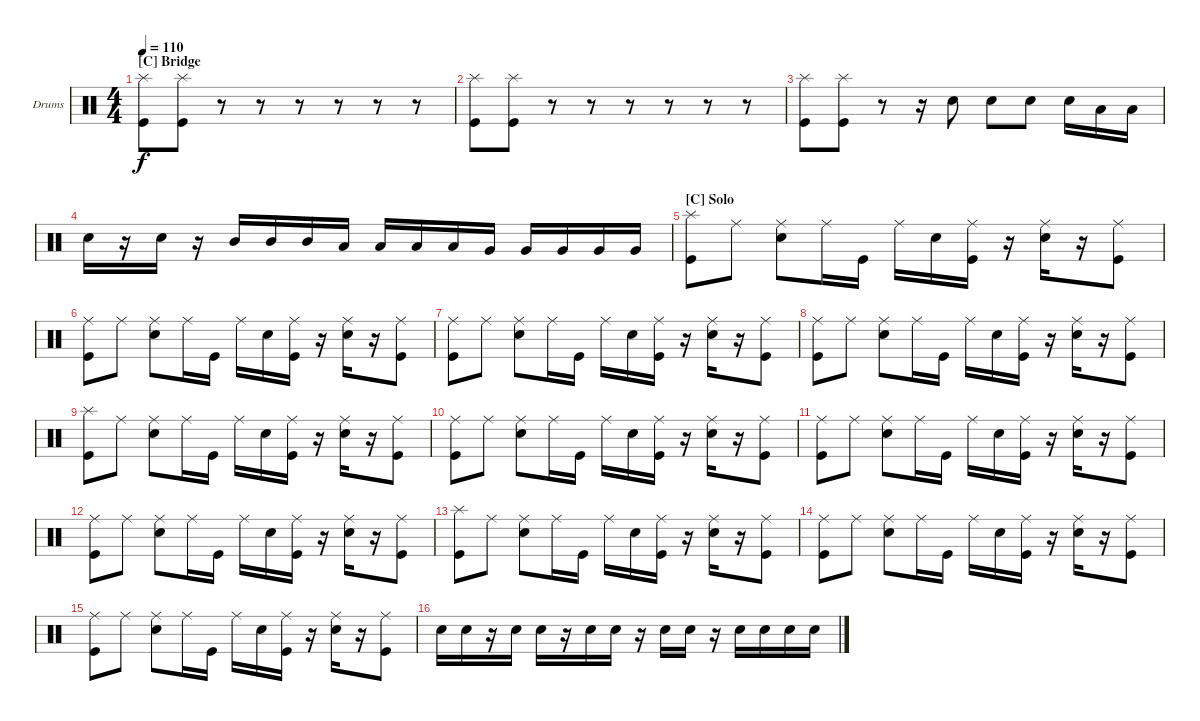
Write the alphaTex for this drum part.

\defaultSystemsLayout 4
\bracketExtendMode groupsimilarinstruments
\firstSystemTrackNameOrientation horizontal
\otherSystemsTrackNameOrientation horizontal
\track ("Drumkit" "Drums") {instrument percussion}
\staff {score}
\articulation defaults
\ts (4 4)
\section ("C" "Bridge")
\tempo 110
\clef neutral
\ks c
("Splash (hit)" "Kick (hit)").8{dy f} ("Splash (hit)" "Kick (hit)").8 r.8 r.8 r.8 r.8 r.8 r.8 |
("Splash (hit)" "Kick (hit)").8 ("Splash (hit)" "Kick (hit)").8 r.8 r.8 r.8 r.8 r.8 r.8 |
("Splash (hit)" "Kick (hit)").8 ("Splash (hit)" "Kick (hit)").8 r.8 r.16 "Snare (hit) 2".8 "Snare (hit) 2".8 "Snare (hit) 2".8 "Snare (hit) 2".16 "Low Tom (hit)".16 "Low Tom (hit)".16 |
"Snare (hit) 2".16 r.16 "Snare (hit) 2".16 r.16 "Mid Tom (hit)".16 "Mid Tom (hit)".16 "Mid Tom (hit)".16 "Low Tom (hit)".16 "Low Tom (hit)".16 "Low Tom (hit)".16 "Low Tom (hit)".16 "Very Low Tom (hit)".16 "Very Low Tom (hit)".16 "Very Low Tom (hit)".16 "Very Low Tom (hit)".16 "Very Low Tom (hit)".16 |
\section ("C" "Solo")
("Splash (hit)" "Kick (hit)").8 "Ride (middle)".8 ("Snare (hit) 2" "Ride (middle)").8 "Ride (middle)".16 "Kick (hit)".16 "Ride (middle)".16 "Snare (hit) 2".16 ("Kick (hit)" "Ride (middle)").16 r.16 ("Snare (hit) 2" "Ride (middle)").16 r.16 ("Kick (hit)" "Ride (middle)").8 |
("Kick (hit)" "Ride (middle)").8 "Ride (middle)".8 ("Snare (hit) 2" "Ride (middle)").8 "Ride (middle)".16 "Kick (hit)".16 "Ride (middle)".16 "Snare (hit) 2".16 ("Kick (hit)" "Ride (middle)").16 r.16 ("Snare (hit) 2" "Ride (middle)").16 r.16 ("Kick (hit)" "Ride (middle)").8 |
("Kick (hit)" "Ride (middle)").8 "Ride (middle)".8 ("Snare (hit) 2" "Ride (middle)").8 "Ride (middle)".16 "Kick (hit)".16 "Ride (middle)".16 "Snare (hit) 2".16 ("Kick (hit)" "Ride (middle)").16 r.16 ("Snare (hit) 2" "Ride (middle)").16 r.16 ("Kick (hit)" "Ride (middle)").8 |
("Kick (hit)" "Ride (middle)").8 "Ride (middle)".8 ("Snare (hit) 2" "Ride (middle)").8 "Ride (middle)".16 "Kick (hit)".16 "Ride (middle)".16 "Snare (hit) 2".16 ("Kick (hit)" "Ride (middle)").16 r.16 ("Snare (hit) 2" "Ride (middle)").16 r.16 ("Kick (hit)" "Ride (middle)").8 |
("Splash (hit)" "Kick (hit)").8 "Ride (middle)".8 ("Snare (hit) 2" "Ride (middle)").8 "Ride (middle)".16 "Kick (hit)".16 "Ride (middle)".16 "Snare (hit) 2".16 ("Kick (hit)" "Ride (middle)").16 r.16 ("Snare (hit) 2" "Ride (middle)").16 r.16 ("Kick (hit)" "Ride (middle)").8 |
("Kick (hit)" "Ride (middle)").8 "Ride (middle)".8 ("Snare (hit) 2" "Ride (middle)").8 "Ride (middle)".16 "Kick (hit)".16 "Ride (middle)".16 "Snare (hit) 2".16 ("Kick (hit)" "Ride (middle)").16 r.16 ("Snare (hit) 2" "Ride (middle)").16 r.16 ("Kick (hit)" "Ride (middle)").8 |
("Kick (hit)" "Ride (middle)").8 "Ride (middle)".8 ("Snare (hit) 2" "Ride (middle)").8 "Ride (middle)".16 "Kick (hit)".16 "Ride (middle)".16 "Snare (hit) 2".16 ("Kick (hit)" "Ride (middle)").16 r.16 ("Snare (hit) 2" "Ride (middle)").16 r.16 ("Kick (hit)" "Ride (middle)").8 |
("Kick (hit)" "Ride (middle)").8 "Ride (middle)".8 ("Snare (hit) 2" "Ride (middle)").8 "Ride (middle)".16 "Kick (hit)".16 "Ride (middle)".16 "Snare (hit) 2".16 ("Kick (hit)" "Ride (middle)").16 r.16 ("Snare (hit) 2" "Ride (middle)").16 r.16 ("Kick (hit)" "Ride (middle)").8 |
("Splash (hit)" "Kick (hit)").8 "Ride (middle)".8 ("Snare (hit) 2" "Ride (middle)").8 "Ride (middle)".16 "Kick (hit)".16 "Ride (middle)".16 "Snare (hit) 2".16 ("Kick (hit)" "Ride (middle)").16 r.16 ("Snare (hit) 2" "Ride (middle)").16 r.16 ("Kick (hit)" "Ride (middle)").8 |
("Kick (hit)" "Ride (middle)").8 "Ride (middle)".8 ("Snare (hit) 2" "Ride (middle)").8 "Ride (middle)".16 "Kick (hit)".16 "Ride (middle)".16 "Snare (hit) 2".16 ("Kick (hit)" "Ride (middle)").16 r.16 ("Snare (hit) 2" "Ride (middle)").16 r.16 ("Kick (hit)" "Ride (middle)").8 |
("Kick (hit)" "Ride (middle)").8 "Ride (middle)".8 ("Snare (hit) 2" "Ride (middle)").8 "Ride (middle)".16 "Kick (hit)".16 "Ride (middle)".16 "Snare (hit) 2".16 ("Kick (hit)" "Ride (middle)").16 r.16 ("Snare (hit) 2" "Ride (middle)").16 r.16 ("Kick (hit)" "Ride (middle)").8 |
"Snare (hit) 2".16 "Snare (hit) 2".16 r.16 "Snare (hit) 2".16 "Snare (hit) 2".16 r.16 "Snare (hit) 2".16 "Snare (hit) 2".16 r.16 "Snare (hit) 2".16 "Snare (hit) 2".16 r.16 "Snare (hit) 2".16 "Snare (hit) 2".16 "Snare (hit) 2".16 "Snare (hit) 2".16
